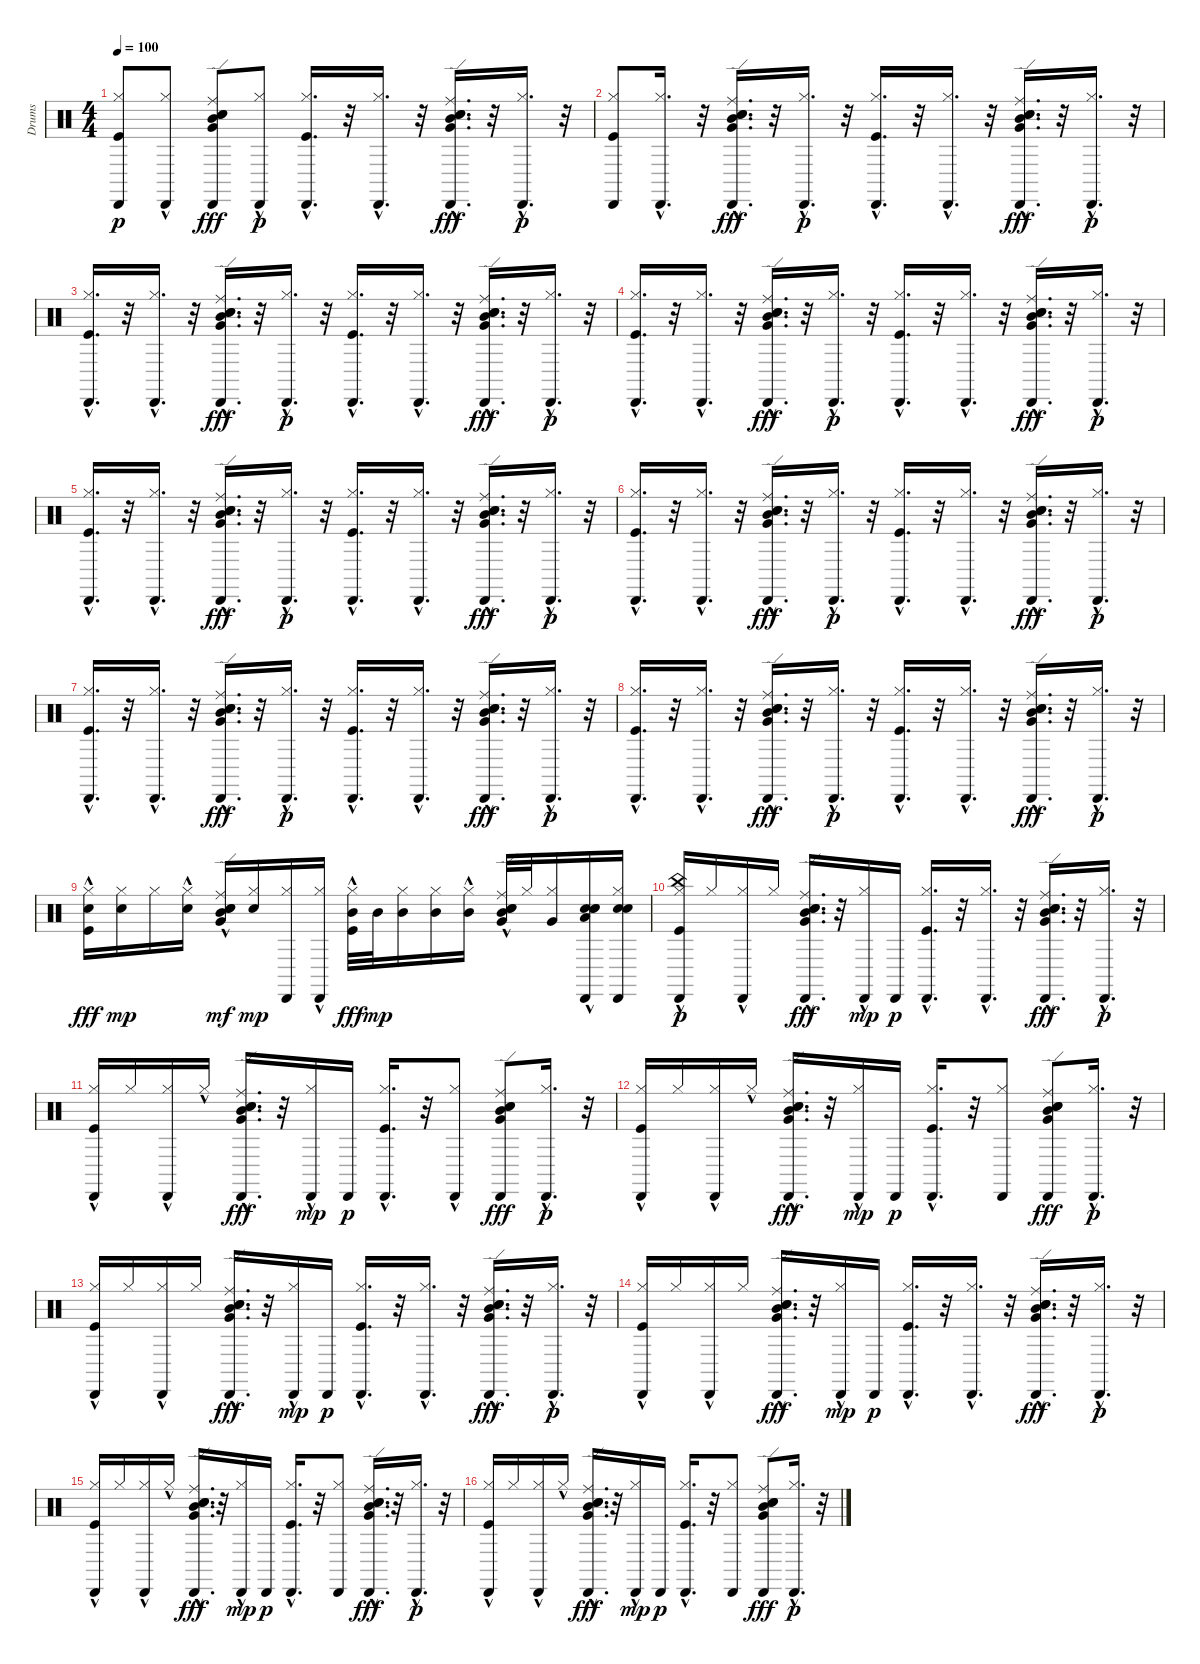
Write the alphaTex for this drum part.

\track ("Drums" "Drums") {instrument percussion}
\staff {score}
\articulation defaults
\ts (4 4)
\tempo 100
\clef neutral
\ks c
("Hi-Hat (closed)" "Kick (hit)" "Cabasa (hit)").8{dy p} ("Hi-Hat (closed)"{hac} "Cabasa (hit)").8 ("Electric Snare (hit)" "Snare (hit) 2" "Ride (edge)" "Mid Tom (hit)" "Cabasa (hit)" "Very Low Tom (hit)").8{dy fff} ("Hi-Hat (closed)"{hac} "Cabasa (hit)").8{dy p} ("Hi-Hat (closed)"{hac} "Kick (hit)"{hac} "Cabasa (hit)"{hac}).16{d} r.32 ("Hi-Hat (closed)"{hac} "Cabasa (hit)"{hac}).16{d} r.32 ("Electric Snare (hit)"{hac} "Snare (hit) 2"{hac} "Ride (edge)"{hac} "Mid Tom (hit)"{hac} "Cabasa (hit)"{hac} "Very Low Tom (hit)"{hac}).16{d dy fff} r.32 ("Hi-Hat (closed)"{hac} "Cabasa (hit)"{hac}).16{d dy p} r.32 |
("Hi-Hat (closed)" "Kick (hit)" "Cabasa (hit)").8 ("Hi-Hat (closed)"{hac} "Cabasa (hit)"{hac}).16{d} r.32 ("Electric Snare (hit)"{hac} "Snare (hit) 2"{hac} "Ride (edge)"{hac} "Mid Tom (hit)"{hac} "Cabasa (hit)"{hac} "Very Low Tom (hit)"{hac}).16{d dy fff} r.32 ("Hi-Hat (closed)"{hac} "Cabasa (hit)"{hac}).16{d dy p} r.32 ("Hi-Hat (closed)"{hac} "Kick (hit)"{hac} "Cabasa (hit)"{hac}).16{d} r.32 ("Hi-Hat (closed)"{hac} "Cabasa (hit)"{hac}).16{d} r.32 ("Electric Snare (hit)"{hac} "Snare (hit) 2"{hac} "Ride (edge)"{hac} "Mid Tom (hit)"{hac} "Cabasa (hit)"{hac} "Very Low Tom (hit)"{hac}).16{d dy fff} r.32 ("Hi-Hat (closed)"{hac} "Cabasa (hit)"{hac}).16{d dy p} r.32 |
("Hi-Hat (closed)"{hac} "Kick (hit)"{hac} "Cabasa (hit)"{hac}).16{d} r.32 ("Hi-Hat (closed)"{hac} "Cabasa (hit)"{hac}).16{d} r.32 ("Electric Snare (hit)"{hac} "Snare (hit) 2"{hac} "Ride (edge)"{hac} "Mid Tom (hit)"{hac} "Cabasa (hit)"{hac} "Very Low Tom (hit)"{hac}).16{d dy fff} r.32 ("Hi-Hat (closed)"{hac} "Cabasa (hit)"{hac}).16{d dy p} r.32 ("Hi-Hat (closed)"{hac} "Kick (hit)"{hac} "Cabasa (hit)"{hac}).16{d} r.32 ("Hi-Hat (closed)"{hac} "Cabasa (hit)"{hac}).16{d} r.32 ("Electric Snare (hit)"{hac} "Snare (hit) 2"{hac} "Ride (edge)"{hac} "Mid Tom (hit)"{hac} "Cabasa (hit)"{hac} "Very Low Tom (hit)"{hac}).16{d dy fff} r.32 ("Hi-Hat (closed)"{hac} "Cabasa (hit)"{hac}).16{d dy p} r.32 |
("Hi-Hat (closed)"{hac} "Kick (hit)"{hac} "Cabasa (hit)"{hac}).16{d} r.32 ("Hi-Hat (closed)"{hac} "Cabasa (hit)"{hac}).16{d} r.32 ("Electric Snare (hit)"{hac} "Snare (hit) 2"{hac} "Ride (edge)"{hac} "Mid Tom (hit)"{hac} "Cabasa (hit)"{hac} "Very Low Tom (hit)"{hac}).16{d dy fff} r.32 ("Hi-Hat (closed)"{hac} "Cabasa (hit)"{hac}).16{d dy p} r.32 ("Hi-Hat (closed)"{hac} "Kick (hit)"{hac} "Cabasa (hit)"{hac}).16{d} r.32 ("Hi-Hat (closed)"{hac} "Cabasa (hit)"{hac}).16{d} r.32 ("Electric Snare (hit)"{hac} "Snare (hit) 2"{hac} "Ride (edge)"{hac} "Mid Tom (hit)"{hac} "Cabasa (hit)"{hac} "Very Low Tom (hit)"{hac}).16{d dy fff} r.32 ("Hi-Hat (closed)"{hac} "Cabasa (hit)"{hac}).16{d dy p} r.32 |
("Hi-Hat (closed)"{hac} "Kick (hit)"{hac} "Cabasa (hit)"{hac}).16{d} r.32 ("Hi-Hat (closed)"{hac} "Cabasa (hit)"{hac}).16{d} r.32 ("Electric Snare (hit)"{hac} "Snare (hit) 2"{hac} "Ride (edge)"{hac} "Mid Tom (hit)"{hac} "Cabasa (hit)"{hac} "Very Low Tom (hit)"{hac}).16{d dy fff} r.32 ("Hi-Hat (closed)"{hac} "Cabasa (hit)"{hac}).16{d dy p} r.32 ("Hi-Hat (closed)"{hac} "Kick (hit)"{hac} "Cabasa (hit)"{hac}).16{d} r.32 ("Hi-Hat (closed)"{hac} "Cabasa (hit)"{hac}).16{d} r.32 ("Electric Snare (hit)"{hac} "Snare (hit) 2"{hac} "Ride (edge)"{hac} "Mid Tom (hit)"{hac} "Cabasa (hit)"{hac} "Very Low Tom (hit)"{hac}).16{d dy fff} r.32 ("Hi-Hat (closed)"{hac} "Cabasa (hit)"{hac}).16{d dy p} r.32 |
("Hi-Hat (closed)"{hac} "Kick (hit)"{hac} "Cabasa (hit)"{hac}).16{d} r.32 ("Hi-Hat (closed)"{hac} "Cabasa (hit)"{hac}).16{d} r.32 ("Electric Snare (hit)"{hac} "Snare (hit) 2"{hac} "Ride (edge)"{hac} "Mid Tom (hit)"{hac} "Cabasa (hit)"{hac} "Very Low Tom (hit)"{hac}).16{d dy fff} r.32 ("Hi-Hat (closed)"{hac} "Cabasa (hit)"{hac}).16{d dy p} r.32 ("Hi-Hat (closed)"{hac} "Kick (hit)"{hac} "Cabasa (hit)"{hac}).16{d} r.32 ("Hi-Hat (closed)"{hac} "Cabasa (hit)"{hac}).16{d} r.32 ("Electric Snare (hit)"{hac} "Snare (hit) 2"{hac} "Ride (edge)"{hac} "Mid Tom (hit)"{hac} "Cabasa (hit)"{hac} "Very Low Tom (hit)"{hac}).16{d dy fff} r.32 ("Hi-Hat (closed)"{hac} "Cabasa (hit)"{hac}).16{d dy p} r.32 |
("Hi-Hat (closed)"{hac} "Kick (hit)"{hac} "Cabasa (hit)"{hac}).16{d} r.32 ("Hi-Hat (closed)"{hac} "Cabasa (hit)"{hac}).16{d} r.32 ("Electric Snare (hit)"{hac} "Snare (hit) 2"{hac} "Ride (edge)"{hac} "Mid Tom (hit)"{hac} "Cabasa (hit)"{hac} "Very Low Tom (hit)"{hac}).16{d dy fff} r.32 ("Hi-Hat (closed)"{hac} "Cabasa (hit)"{hac}).16{d dy p} r.32 ("Hi-Hat (closed)"{hac} "Kick (hit)"{hac} "Cabasa (hit)"{hac}).16{d} r.32 ("Hi-Hat (closed)"{hac} "Cabasa (hit)"{hac}).16{d} r.32 ("Electric Snare (hit)"{hac} "Snare (hit) 2"{hac} "Ride (edge)"{hac} "Mid Tom (hit)"{hac} "Cabasa (hit)"{hac} "Very Low Tom (hit)"{hac}).16{d dy fff} r.32 ("Hi-Hat (closed)"{hac} "Cabasa (hit)"{hac}).16{d dy p} r.32 |
("Hi-Hat (closed)"{hac} "Kick (hit)"{hac} "Cabasa (hit)"{hac}).16{d} r.32 ("Hi-Hat (closed)"{hac} "Cabasa (hit)"{hac}).16{d} r.32 ("Electric Snare (hit)"{hac} "Snare (hit) 2"{hac} "Ride (edge)"{hac} "Mid Tom (hit)"{hac} "Cabasa (hit)"{hac} "Very Low Tom (hit)"{hac}).16{d dy fff} r.32 ("Hi-Hat (closed)"{hac} "Cabasa (hit)"{hac}).16{d dy p} r.32 ("Hi-Hat (closed)"{hac} "Kick (hit)"{hac} "Cabasa (hit)"{hac}).16{d} r.32 ("Hi-Hat (closed)"{hac} "Cabasa (hit)"{hac}).16{d} r.32 ("Electric Snare (hit)"{hac} "Snare (hit) 2"{hac} "Ride (edge)"{hac} "Mid Tom (hit)"{hac} "Cabasa (hit)"{hac} "Very Low Tom (hit)"{hac}).16{d dy fff} r.32 ("Hi-Hat (closed)"{hac} "Cabasa (hit)"{hac}).16{d dy p} r.32 |
("Hand Clap (hit)" "Hi-Hat (closed)" "Kick (hit)"{hac}).16{dy fff} ("Hand Clap (hit)" "Hi-Hat (closed)").16{dy mp} "Hi-Hat (closed)".16 ("Hand Clap (hit)"{hac} "Hi-Hat (closed)"{hac}).16 ("Electric Snare (hit)"{hac} "Snare (hit) 2"{hac} "Ride (edge)"{hac} "Mid Tom (hit)"{hac} "Very Low Tom (hit)"{hac}).16{dy mf} ("Hand Clap (hit)" "Hi-Hat (closed)").16{dy mp} ("Cabasa (hit)" "Hi-Hat (closed)").16 ("Cabasa (hit)"{hac} "Hi-Hat (closed)").16 ("Mid Tom (hit)" "Hi-Hat (closed)" "Kick (hit)"{hac}).32{dy fff} "Mid Tom (hit)".32{dy mp} ("Mid Tom (hit)" "Hi-Hat (closed)").16 ("Mid Tom (hit)" "Hi-Hat (closed)").16 ("Mid Tom (hit)" "Hi-Hat (closed)"{hac}).16 ("Very Low Tom (hit)" "Electric Snare (hit)"{hac} "Snare (hit) 2"{hac} "Ride (edge)"{hac} "Mid Tom (hit)"{hac}).32 "Hi-Hat (closed)".32 ("Very Low Tom (hit)" "Hi-Hat (closed)").16 ("Low Tom (hit)"{hac} "Snare (hit) 2" "Snare (hit) 2" "Cabasa (hit)" "Electric Snare (hit)"{hac}).16 ("Snare (hit) 2" "Snare (hit) 2" "Cabasa (hit)" "Hi-Hat (closed)").16 |
("China (hit)" "Hi-Hat (closed)" "Kick (hit)"{hac} "Cabasa (hit)"{hac}).16{dy p} "Hi-Hat (closed)".16 ("Hi-Hat (closed)" "Cabasa (hit)"{hac}).16 "Hi-Hat (closed)".16 ("Electric Snare (hit)"{hac} "Snare (hit) 2"{hac} "Ride (edge)"{hac} "Mid Tom (hit)"{hac} "Cabasa (hit)"{hac} "Very Low Tom (hit)"{hac}).16{d dy fff} r.32 ("Cabasa (hit)" "Hi-Hat (closed)"{hac}).16{dy mp} "Cabasa (hit)".16{dy p} ("Hi-Hat (closed)"{hac} "Kick (hit)"{hac} "Cabasa (hit)"{hac}).16{d} r.32 ("Hi-Hat (closed)"{hac} "Cabasa (hit)"{hac}).16{d} r.32 ("Electric Snare (hit)"{hac} "Snare (hit) 2"{hac} "Ride (edge)"{hac} "Mid Tom (hit)"{hac} "Cabasa (hit)"{hac} "Very Low Tom (hit)"{hac}).16{d dy fff} r.32 ("Hi-Hat (closed)"{hac} "Cabasa (hit)"{hac}).16{d dy p} r.32 |
("Hi-Hat (closed)" "Kick (hit)"{hac} "Cabasa (hit)"{hac}).16 "Hi-Hat (closed)".16 ("Hi-Hat (closed)" "Cabasa (hit)"{hac}).16 "Hi-Hat (closed)"{hac}.16 ("Electric Snare (hit)"{hac} "Snare (hit) 2"{hac} "Ride (edge)"{hac} "Mid Tom (hit)"{hac} "Cabasa (hit)"{hac} "Very Low Tom (hit)"{hac}).16{d dy fff} r.32 ("Cabasa (hit)" "Hi-Hat (closed)"{hac}).16{dy mp} "Cabasa (hit)".16{dy p} ("Hi-Hat (closed)"{hac} "Kick (hit)"{hac} "Cabasa (hit)"{hac}).16{d} r.32 ("Hi-Hat (closed)"{hac} "Cabasa (hit)").8 ("Electric Snare (hit)" "Snare (hit) 2" "Ride (edge)" "Mid Tom (hit)" "Cabasa (hit)" "Very Low Tom (hit)").8{dy fff} ("Hi-Hat (closed)"{hac} "Cabasa (hit)"{hac}).16{d dy p} r.32 |
("Hi-Hat (closed)" "Kick (hit)"{hac} "Cabasa (hit)"{hac}).16 "Hi-Hat (closed)".16 ("Hi-Hat (closed)" "Cabasa (hit)"{hac}).16 "Hi-Hat (closed)"{hac}.16 ("Electric Snare (hit)"{hac} "Snare (hit) 2"{hac} "Ride (edge)"{hac} "Mid Tom (hit)"{hac} "Cabasa (hit)"{hac} "Very Low Tom (hit)"{hac}).16{d dy fff} r.32 ("Cabasa (hit)" "Hi-Hat (closed)"{hac}).16{dy mp} "Cabasa (hit)".16{dy p} ("Hi-Hat (closed)"{hac} "Kick (hit)"{hac} "Cabasa (hit)"{hac}).16{d} r.32 ("Hi-Hat (closed)" "Cabasa (hit)").8 ("Electric Snare (hit)" "Snare (hit) 2" "Ride (edge)" "Mid Tom (hit)" "Cabasa (hit)" "Very Low Tom (hit)").8{dy fff} ("Hi-Hat (closed)"{hac} "Cabasa (hit)"{hac}).16{d dy p} r.32 |
("Hi-Hat (closed)" "Kick (hit)"{hac} "Cabasa (hit)"{hac}).16 "Hi-Hat (closed)".16 ("Hi-Hat (closed)" "Cabasa (hit)"{hac}).16 "Hi-Hat (closed)".16 ("Electric Snare (hit)"{hac} "Snare (hit) 2"{hac} "Ride (edge)"{hac} "Mid Tom (hit)"{hac} "Cabasa (hit)"{hac} "Very Low Tom (hit)"{hac}).16{d dy fff} r.32 ("Cabasa (hit)" "Hi-Hat (closed)"{hac}).16{dy mp} "Cabasa (hit)".16{dy p} ("Hi-Hat (closed)"{hac} "Kick (hit)"{hac} "Cabasa (hit)"{hac}).16{d} r.32 ("Hi-Hat (closed)"{hac} "Cabasa (hit)"{hac}).16{d} r.32 ("Electric Snare (hit)"{hac} "Snare (hit) 2"{hac} "Ride (edge)"{hac} "Mid Tom (hit)"{hac} "Cabasa (hit)"{hac} "Very Low Tom (hit)"{hac}).16{d dy fff} r.32 ("Hi-Hat (closed)"{hac} "Cabasa (hit)"{hac}).16{d dy p} r.32 |
("Hi-Hat (closed)" "Kick (hit)"{hac} "Cabasa (hit)"{hac}).16 "Hi-Hat (closed)".16 ("Hi-Hat (closed)" "Cabasa (hit)"{hac}).16 "Hi-Hat (closed)".16 ("Electric Snare (hit)"{hac} "Snare (hit) 2"{hac} "Ride (edge)"{hac} "Mid Tom (hit)"{hac} "Cabasa (hit)"{hac} "Very Low Tom (hit)"{hac}).16{d dy fff} r.32 ("Cabasa (hit)" "Hi-Hat (closed)"{hac}).16{dy mp} "Cabasa (hit)".16{dy p} ("Hi-Hat (closed)"{hac} "Kick (hit)"{hac} "Cabasa (hit)"{hac}).16{d} r.32 ("Hi-Hat (closed)"{hac} "Cabasa (hit)"{hac}).16{d} r.32 ("Electric Snare (hit)"{hac} "Snare (hit) 2"{hac} "Ride (edge)"{hac} "Mid Tom (hit)"{hac} "Cabasa (hit)"{hac} "Very Low Tom (hit)"{hac}).16{d dy fff} r.32 ("Hi-Hat (closed)"{hac} "Cabasa (hit)"{hac}).16{d dy p} r.32 |
("Hi-Hat (closed)" "Kick (hit)"{hac} "Cabasa (hit)"{hac}).16 "Hi-Hat (closed)".16 ("Hi-Hat (closed)" "Cabasa (hit)"{hac}).16 "Hi-Hat (closed)"{hac}.16 ("Electric Snare (hit)"{hac} "Snare (hit) 2"{hac} "Ride (edge)"{hac} "Mid Tom (hit)"{hac} "Cabasa (hit)"{hac} "Very Low Tom (hit)"{hac}).16{d dy fff} r.32 ("Cabasa (hit)" "Hi-Hat (closed)"{hac}).16{dy mp} "Cabasa (hit)".16{dy p} ("Hi-Hat (closed)"{hac} "Kick (hit)"{hac} "Cabasa (hit)"{hac}).16{d} r.32 ("Hi-Hat (closed)" "Cabasa (hit)").8 ("Electric Snare (hit)"{hac} "Snare (hit) 2"{hac} "Ride (edge)"{hac} "Mid Tom (hit)"{hac} "Cabasa (hit)"{hac} "Very Low Tom (hit)"{hac}).16{d dy fff} r.32 ("Hi-Hat (closed)"{hac} "Cabasa (hit)"{hac}).16{d dy p} r.32 |
("Hi-Hat (closed)" "Kick (hit)"{hac} "Cabasa (hit)"{hac}).16 "Hi-Hat (closed)".16 ("Hi-Hat (closed)" "Cabasa (hit)"{hac}).16 "Hi-Hat (closed)"{hac}.16 ("Electric Snare (hit)"{hac} "Snare (hit) 2"{hac} "Ride (edge)"{hac} "Mid Tom (hit)"{hac} "Cabasa (hit)"{hac} "Very Low Tom (hit)"{hac}).16{d dy fff} r.32 ("Cabasa (hit)" "Hi-Hat (closed)"{hac}).16{dy mp} "Cabasa (hit)".16{dy p} ("Hi-Hat (closed)"{hac} "Kick (hit)"{hac} "Cabasa (hit)"{hac}).16{d} r.32 ("Hi-Hat (closed)" "Cabasa (hit)").8 ("Electric Snare (hit)" "Snare (hit) 2" "Ride (edge)" "Mid Tom (hit)" "Cabasa (hit)" "Very Low Tom (hit)").8{dy fff} ("Hi-Hat (closed)"{hac} "Cabasa (hit)"{hac}).16{d dy p} r.32
